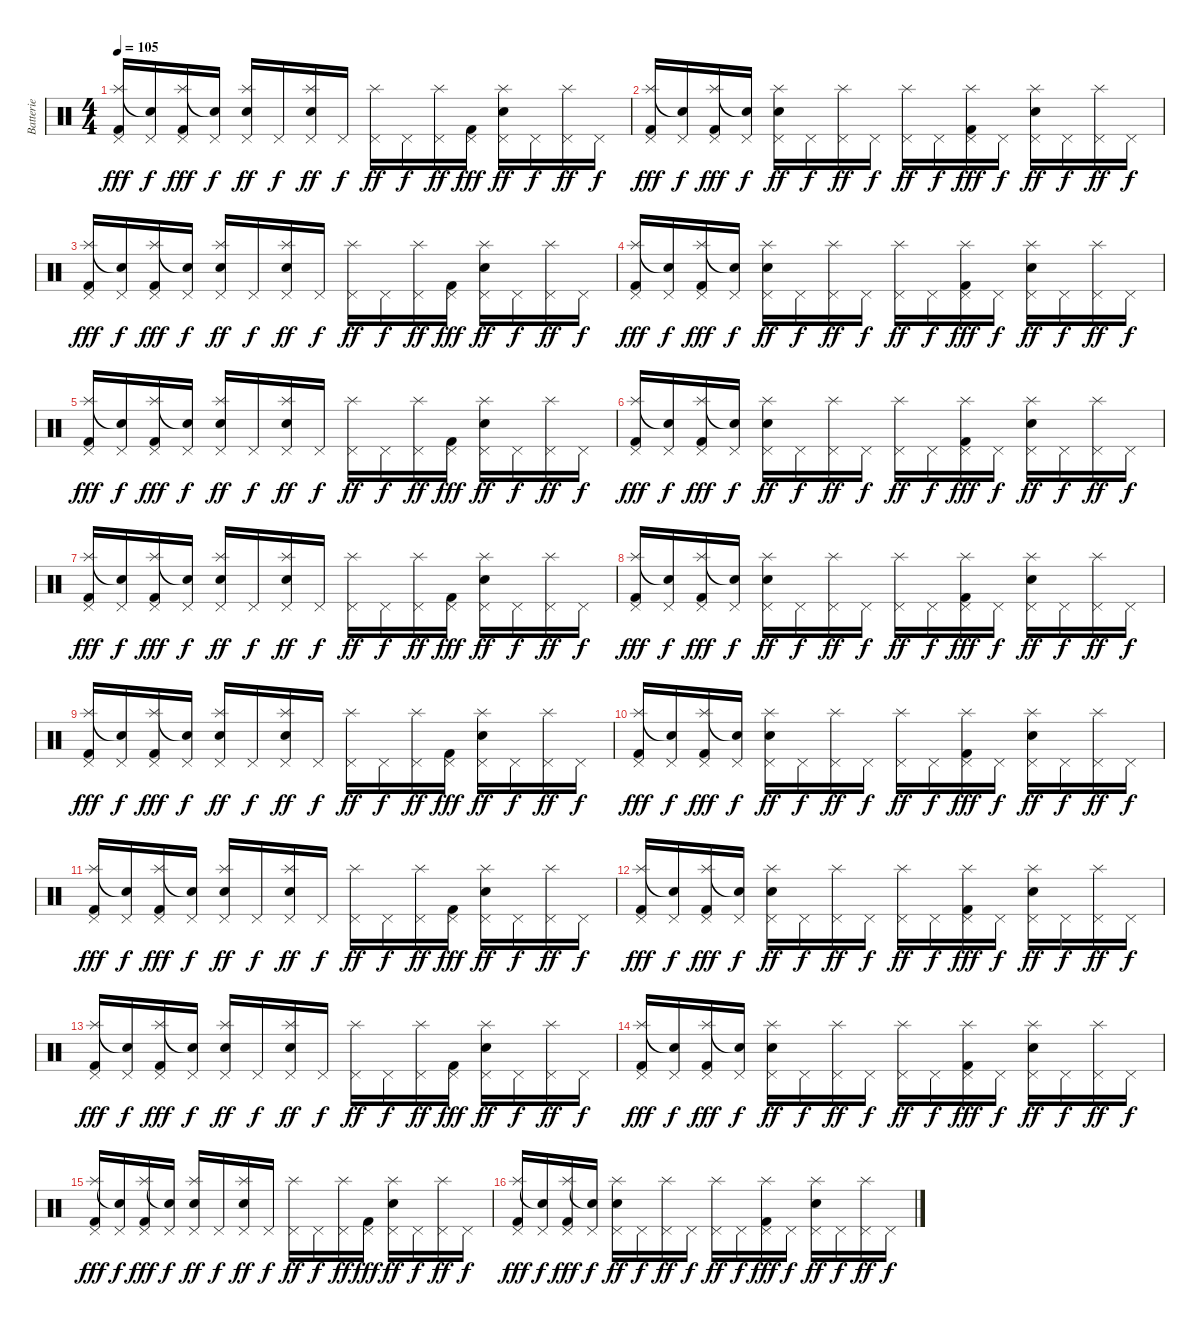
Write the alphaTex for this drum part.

\track ("Batterie" "Batterie") {instrument percussion}
\staff {score}
\articulation defaults
\ts (4 4)
\tempo 105
\clef neutral
\ks c
("Pedal Hi-Hat (hit)" "Splash (hit)" "Kick (hit) 2").16{dy fff} ("Pedal Hi-Hat (hit)" "Snare (hit)"{t}).16{dy f} ("Pedal Hi-Hat (hit)" "Splash (hit)" "Kick (hit) 2").16{dy fff} ("Pedal Hi-Hat (hit)" "Snare (hit)"{t}).16{dy f} ("Pedal Hi-Hat (hit)" "Snare (hit) 2" "Splash (hit)").16{dy ff} "Pedal Hi-Hat (hit)".16{dy f} ("Pedal Hi-Hat (hit)" "Snare (hit) 2" "Splash (hit)").16{dy ff} "Pedal Hi-Hat (hit)".16{dy f} ("Pedal Hi-Hat (hit)" "Splash (hit)").16{dy ff} "Pedal Hi-Hat (hit)".16{dy f} ("Pedal Hi-Hat (hit)" "Splash (hit)").16{dy ff} ("Pedal Hi-Hat (hit)" "Kick (hit) 2").16{dy fff} ("Pedal Hi-Hat (hit)" "Snare (hit) 2" "Splash (hit)").16{dy ff} "Pedal Hi-Hat (hit)".16{dy f} ("Pedal Hi-Hat (hit)" "Splash (hit)").16{dy ff} "Pedal Hi-Hat (hit)".16{dy f} |
("Pedal Hi-Hat (hit)" "Splash (hit)" "Kick (hit) 2").16{dy fff} ("Pedal Hi-Hat (hit)" "Snare (hit)"{t}).16{dy f} ("Pedal Hi-Hat (hit)" "Splash (hit)" "Kick (hit) 2").16{dy fff} ("Pedal Hi-Hat (hit)" "Snare (hit)"{t}).16{dy f} ("Pedal Hi-Hat (hit)" "Snare (hit) 2" "Splash (hit)").16{dy ff} "Pedal Hi-Hat (hit)".16{dy f} ("Pedal Hi-Hat (hit)" "Splash (hit)").16{dy ff} "Pedal Hi-Hat (hit)".16{dy f} ("Pedal Hi-Hat (hit)" "Splash (hit)").16{dy ff} "Pedal Hi-Hat (hit)".16{dy f} ("Pedal Hi-Hat (hit)" "Splash (hit)" "Kick (hit) 2").16{dy fff} "Pedal Hi-Hat (hit)".16{dy f} ("Pedal Hi-Hat (hit)" "Snare (hit) 2" "Splash (hit)").16{dy ff} "Pedal Hi-Hat (hit)".16{dy f} ("Pedal Hi-Hat (hit)" "Splash (hit)").16{dy ff} "Pedal Hi-Hat (hit)".16{dy f} |
("Pedal Hi-Hat (hit)" "Splash (hit)" "Kick (hit) 2").16{dy fff} ("Pedal Hi-Hat (hit)" "Snare (hit)"{t}).16{dy f} ("Pedal Hi-Hat (hit)" "Splash (hit)" "Kick (hit) 2").16{dy fff} ("Pedal Hi-Hat (hit)" "Snare (hit)"{t}).16{dy f} ("Pedal Hi-Hat (hit)" "Snare (hit) 2" "Splash (hit)").16{dy ff} "Pedal Hi-Hat (hit)".16{dy f} ("Pedal Hi-Hat (hit)" "Snare (hit) 2" "Splash (hit)").16{dy ff} "Pedal Hi-Hat (hit)".16{dy f} ("Pedal Hi-Hat (hit)" "Splash (hit)").16{dy ff} "Pedal Hi-Hat (hit)".16{dy f} ("Pedal Hi-Hat (hit)" "Splash (hit)").16{dy ff} ("Pedal Hi-Hat (hit)" "Kick (hit) 2").16{dy fff} ("Pedal Hi-Hat (hit)" "Snare (hit) 2" "Splash (hit)").16{dy ff} "Pedal Hi-Hat (hit)".16{dy f} ("Pedal Hi-Hat (hit)" "Splash (hit)").16{dy ff} "Pedal Hi-Hat (hit)".16{dy f} |
("Pedal Hi-Hat (hit)" "Splash (hit)" "Kick (hit) 2").16{dy fff} ("Pedal Hi-Hat (hit)" "Snare (hit)"{t}).16{dy f} ("Pedal Hi-Hat (hit)" "Splash (hit)" "Kick (hit) 2").16{dy fff} ("Pedal Hi-Hat (hit)" "Snare (hit)"{t}).16{dy f} ("Pedal Hi-Hat (hit)" "Snare (hit) 2" "Splash (hit)").16{dy ff} "Pedal Hi-Hat (hit)".16{dy f} ("Pedal Hi-Hat (hit)" "Splash (hit)").16{dy ff} "Pedal Hi-Hat (hit)".16{dy f} ("Pedal Hi-Hat (hit)" "Splash (hit)").16{dy ff} "Pedal Hi-Hat (hit)".16{dy f} ("Pedal Hi-Hat (hit)" "Splash (hit)" "Kick (hit) 2").16{dy fff} "Pedal Hi-Hat (hit)".16{dy f} ("Pedal Hi-Hat (hit)" "Snare (hit) 2" "Splash (hit)").16{dy ff} "Pedal Hi-Hat (hit)".16{dy f} ("Pedal Hi-Hat (hit)" "Splash (hit)").16{dy ff} "Pedal Hi-Hat (hit)".16{dy f} |
("Pedal Hi-Hat (hit)" "Splash (hit)" "Kick (hit) 2").16{dy fff} ("Pedal Hi-Hat (hit)" "Snare (hit)"{t}).16{dy f} ("Pedal Hi-Hat (hit)" "Splash (hit)" "Kick (hit) 2").16{dy fff} ("Pedal Hi-Hat (hit)" "Snare (hit)"{t}).16{dy f} ("Pedal Hi-Hat (hit)" "Snare (hit) 2" "Splash (hit)").16{dy ff} "Pedal Hi-Hat (hit)".16{dy f} ("Pedal Hi-Hat (hit)" "Snare (hit) 2" "Splash (hit)").16{dy ff} "Pedal Hi-Hat (hit)".16{dy f} ("Pedal Hi-Hat (hit)" "Splash (hit)").16{dy ff} "Pedal Hi-Hat (hit)".16{dy f} ("Pedal Hi-Hat (hit)" "Splash (hit)").16{dy ff} ("Pedal Hi-Hat (hit)" "Kick (hit) 2").16{dy fff} ("Pedal Hi-Hat (hit)" "Snare (hit) 2" "Splash (hit)").16{dy ff} "Pedal Hi-Hat (hit)".16{dy f} ("Pedal Hi-Hat (hit)" "Splash (hit)").16{dy ff} "Pedal Hi-Hat (hit)".16{dy f} |
("Pedal Hi-Hat (hit)" "Splash (hit)" "Kick (hit) 2").16{dy fff} ("Pedal Hi-Hat (hit)" "Snare (hit)"{t}).16{dy f} ("Pedal Hi-Hat (hit)" "Splash (hit)" "Kick (hit) 2").16{dy fff} ("Pedal Hi-Hat (hit)" "Snare (hit)"{t}).16{dy f} ("Pedal Hi-Hat (hit)" "Snare (hit) 2" "Splash (hit)").16{dy ff} "Pedal Hi-Hat (hit)".16{dy f} ("Pedal Hi-Hat (hit)" "Splash (hit)").16{dy ff} "Pedal Hi-Hat (hit)".16{dy f} ("Pedal Hi-Hat (hit)" "Splash (hit)").16{dy ff} "Pedal Hi-Hat (hit)".16{dy f} ("Pedal Hi-Hat (hit)" "Splash (hit)" "Kick (hit) 2").16{dy fff} "Pedal Hi-Hat (hit)".16{dy f} ("Pedal Hi-Hat (hit)" "Snare (hit) 2" "Splash (hit)").16{dy ff} "Pedal Hi-Hat (hit)".16{dy f} ("Pedal Hi-Hat (hit)" "Splash (hit)").16{dy ff} "Pedal Hi-Hat (hit)".16{dy f} |
("Pedal Hi-Hat (hit)" "Splash (hit)" "Kick (hit) 2").16{dy fff} ("Pedal Hi-Hat (hit)" "Snare (hit)"{t}).16{dy f} ("Pedal Hi-Hat (hit)" "Splash (hit)" "Kick (hit) 2").16{dy fff} ("Pedal Hi-Hat (hit)" "Snare (hit)"{t}).16{dy f} ("Pedal Hi-Hat (hit)" "Snare (hit) 2" "Splash (hit)").16{dy ff} "Pedal Hi-Hat (hit)".16{dy f} ("Pedal Hi-Hat (hit)" "Snare (hit) 2" "Splash (hit)").16{dy ff} "Pedal Hi-Hat (hit)".16{dy f} ("Pedal Hi-Hat (hit)" "Splash (hit)").16{dy ff} "Pedal Hi-Hat (hit)".16{dy f} ("Pedal Hi-Hat (hit)" "Splash (hit)").16{dy ff} ("Pedal Hi-Hat (hit)" "Kick (hit) 2").16{dy fff} ("Pedal Hi-Hat (hit)" "Snare (hit) 2" "Splash (hit)").16{dy ff} "Pedal Hi-Hat (hit)".16{dy f} ("Pedal Hi-Hat (hit)" "Splash (hit)").16{dy ff} "Pedal Hi-Hat (hit)".16{dy f} |
("Pedal Hi-Hat (hit)" "Splash (hit)" "Kick (hit) 2").16{dy fff} ("Pedal Hi-Hat (hit)" "Snare (hit)"{t}).16{dy f} ("Pedal Hi-Hat (hit)" "Splash (hit)" "Kick (hit) 2").16{dy fff} ("Pedal Hi-Hat (hit)" "Snare (hit)"{t}).16{dy f} ("Pedal Hi-Hat (hit)" "Snare (hit) 2" "Splash (hit)").16{dy ff} "Pedal Hi-Hat (hit)".16{dy f} ("Pedal Hi-Hat (hit)" "Splash (hit)").16{dy ff} "Pedal Hi-Hat (hit)".16{dy f} ("Pedal Hi-Hat (hit)" "Splash (hit)").16{dy ff} "Pedal Hi-Hat (hit)".16{dy f} ("Pedal Hi-Hat (hit)" "Splash (hit)" "Kick (hit) 2").16{dy fff} "Pedal Hi-Hat (hit)".16{dy f} ("Pedal Hi-Hat (hit)" "Snare (hit) 2" "Splash (hit)").16{dy ff} "Pedal Hi-Hat (hit)".16{dy f} ("Pedal Hi-Hat (hit)" "Splash (hit)").16{dy ff} "Pedal Hi-Hat (hit)".16{dy f} |
("Pedal Hi-Hat (hit)" "Splash (hit)" "Kick (hit) 2").16{dy fff} ("Pedal Hi-Hat (hit)" "Snare (hit)"{t}).16{dy f} ("Pedal Hi-Hat (hit)" "Splash (hit)" "Kick (hit) 2").16{dy fff} ("Pedal Hi-Hat (hit)" "Snare (hit)"{t}).16{dy f} ("Pedal Hi-Hat (hit)" "Snare (hit) 2" "Splash (hit)").16{dy ff} "Pedal Hi-Hat (hit)".16{dy f} ("Pedal Hi-Hat (hit)" "Snare (hit) 2" "Splash (hit)").16{dy ff} "Pedal Hi-Hat (hit)".16{dy f} ("Pedal Hi-Hat (hit)" "Splash (hit)").16{dy ff} "Pedal Hi-Hat (hit)".16{dy f} ("Pedal Hi-Hat (hit)" "Splash (hit)").16{dy ff} ("Pedal Hi-Hat (hit)" "Kick (hit) 2").16{dy fff} ("Pedal Hi-Hat (hit)" "Snare (hit) 2" "Splash (hit)").16{dy ff} "Pedal Hi-Hat (hit)".16{dy f} ("Pedal Hi-Hat (hit)" "Splash (hit)").16{dy ff} "Pedal Hi-Hat (hit)".16{dy f} |
("Pedal Hi-Hat (hit)" "Splash (hit)" "Kick (hit) 2").16{dy fff} ("Pedal Hi-Hat (hit)" "Snare (hit)"{t}).16{dy f} ("Pedal Hi-Hat (hit)" "Splash (hit)" "Kick (hit) 2").16{dy fff} ("Pedal Hi-Hat (hit)" "Snare (hit)"{t}).16{dy f} ("Pedal Hi-Hat (hit)" "Snare (hit) 2" "Splash (hit)").16{dy ff} "Pedal Hi-Hat (hit)".16{dy f} ("Pedal Hi-Hat (hit)" "Splash (hit)").16{dy ff} "Pedal Hi-Hat (hit)".16{dy f} ("Pedal Hi-Hat (hit)" "Splash (hit)").16{dy ff} "Pedal Hi-Hat (hit)".16{dy f} ("Pedal Hi-Hat (hit)" "Splash (hit)" "Kick (hit) 2").16{dy fff} "Pedal Hi-Hat (hit)".16{dy f} ("Pedal Hi-Hat (hit)" "Snare (hit) 2" "Splash (hit)").16{dy ff} "Pedal Hi-Hat (hit)".16{dy f} ("Pedal Hi-Hat (hit)" "Splash (hit)").16{dy ff} "Pedal Hi-Hat (hit)".16{dy f} |
("Pedal Hi-Hat (hit)" "Splash (hit)" "Kick (hit) 2").16{dy fff} ("Pedal Hi-Hat (hit)" "Snare (hit)"{t}).16{dy f} ("Pedal Hi-Hat (hit)" "Splash (hit)" "Kick (hit) 2").16{dy fff} ("Pedal Hi-Hat (hit)" "Snare (hit)"{t}).16{dy f} ("Pedal Hi-Hat (hit)" "Snare (hit) 2" "Splash (hit)").16{dy ff} "Pedal Hi-Hat (hit)".16{dy f} ("Pedal Hi-Hat (hit)" "Snare (hit) 2" "Splash (hit)").16{dy ff} "Pedal Hi-Hat (hit)".16{dy f} ("Pedal Hi-Hat (hit)" "Splash (hit)").16{dy ff} "Pedal Hi-Hat (hit)".16{dy f} ("Pedal Hi-Hat (hit)" "Splash (hit)").16{dy ff} ("Pedal Hi-Hat (hit)" "Kick (hit) 2").16{dy fff} ("Pedal Hi-Hat (hit)" "Snare (hit) 2" "Splash (hit)").16{dy ff} "Pedal Hi-Hat (hit)".16{dy f} ("Pedal Hi-Hat (hit)" "Splash (hit)").16{dy ff} "Pedal Hi-Hat (hit)".16{dy f} |
("Pedal Hi-Hat (hit)" "Splash (hit)" "Kick (hit) 2").16{dy fff} ("Pedal Hi-Hat (hit)" "Snare (hit)"{t}).16{dy f} ("Pedal Hi-Hat (hit)" "Splash (hit)" "Kick (hit) 2").16{dy fff} ("Pedal Hi-Hat (hit)" "Snare (hit)"{t}).16{dy f} ("Pedal Hi-Hat (hit)" "Snare (hit) 2" "Splash (hit)").16{dy ff} "Pedal Hi-Hat (hit)".16{dy f} ("Pedal Hi-Hat (hit)" "Splash (hit)").16{dy ff} "Pedal Hi-Hat (hit)".16{dy f} ("Pedal Hi-Hat (hit)" "Splash (hit)").16{dy ff} "Pedal Hi-Hat (hit)".16{dy f} ("Pedal Hi-Hat (hit)" "Splash (hit)" "Kick (hit) 2").16{dy fff} "Pedal Hi-Hat (hit)".16{dy f} ("Pedal Hi-Hat (hit)" "Snare (hit) 2" "Splash (hit)").16{dy ff} "Pedal Hi-Hat (hit)".16{dy f} ("Pedal Hi-Hat (hit)" "Splash (hit)").16{dy ff} "Pedal Hi-Hat (hit)".16{dy f} |
("Pedal Hi-Hat (hit)" "Splash (hit)" "Kick (hit) 2").16{dy fff} ("Pedal Hi-Hat (hit)" "Snare (hit)"{t}).16{dy f} ("Pedal Hi-Hat (hit)" "Splash (hit)" "Kick (hit) 2").16{dy fff} ("Pedal Hi-Hat (hit)" "Snare (hit)"{t}).16{dy f} ("Pedal Hi-Hat (hit)" "Snare (hit) 2" "Splash (hit)").16{dy ff} "Pedal Hi-Hat (hit)".16{dy f} ("Pedal Hi-Hat (hit)" "Snare (hit) 2" "Splash (hit)").16{dy ff} "Pedal Hi-Hat (hit)".16{dy f} ("Pedal Hi-Hat (hit)" "Splash (hit)").16{dy ff} "Pedal Hi-Hat (hit)".16{dy f} ("Pedal Hi-Hat (hit)" "Splash (hit)").16{dy ff} ("Pedal Hi-Hat (hit)" "Kick (hit) 2").16{dy fff} ("Pedal Hi-Hat (hit)" "Snare (hit) 2" "Splash (hit)").16{dy ff} "Pedal Hi-Hat (hit)".16{dy f} ("Pedal Hi-Hat (hit)" "Splash (hit)").16{dy ff} "Pedal Hi-Hat (hit)".16{dy f} |
("Pedal Hi-Hat (hit)" "Splash (hit)" "Kick (hit) 2").16{dy fff} ("Pedal Hi-Hat (hit)" "Snare (hit)"{t}).16{dy f} ("Pedal Hi-Hat (hit)" "Splash (hit)" "Kick (hit) 2").16{dy fff} ("Pedal Hi-Hat (hit)" "Snare (hit)"{t}).16{dy f} ("Pedal Hi-Hat (hit)" "Snare (hit) 2" "Splash (hit)").16{dy ff} "Pedal Hi-Hat (hit)".16{dy f} ("Pedal Hi-Hat (hit)" "Splash (hit)").16{dy ff} "Pedal Hi-Hat (hit)".16{dy f} ("Pedal Hi-Hat (hit)" "Splash (hit)").16{dy ff} "Pedal Hi-Hat (hit)".16{dy f} ("Pedal Hi-Hat (hit)" "Splash (hit)" "Kick (hit) 2").16{dy fff} "Pedal Hi-Hat (hit)".16{dy f} ("Pedal Hi-Hat (hit)" "Snare (hit) 2" "Splash (hit)").16{dy ff} "Pedal Hi-Hat (hit)".16{dy f} ("Pedal Hi-Hat (hit)" "Splash (hit)").16{dy ff} "Pedal Hi-Hat (hit)".16{dy f} |
("Pedal Hi-Hat (hit)" "Splash (hit)" "Kick (hit) 2").16{dy fff} ("Pedal Hi-Hat (hit)" "Snare (hit)"{t}).16{dy f} ("Pedal Hi-Hat (hit)" "Splash (hit)" "Kick (hit) 2").16{dy fff} ("Pedal Hi-Hat (hit)" "Snare (hit)"{t}).16{dy f} ("Pedal Hi-Hat (hit)" "Snare (hit) 2" "Splash (hit)").16{dy ff} "Pedal Hi-Hat (hit)".16{dy f} ("Pedal Hi-Hat (hit)" "Snare (hit) 2" "Splash (hit)").16{dy ff} "Pedal Hi-Hat (hit)".16{dy f} ("Pedal Hi-Hat (hit)" "Splash (hit)").16{dy ff} "Pedal Hi-Hat (hit)".16{dy f} ("Pedal Hi-Hat (hit)" "Splash (hit)").16{dy ff} ("Pedal Hi-Hat (hit)" "Kick (hit) 2").16{dy fff} ("Pedal Hi-Hat (hit)" "Snare (hit) 2" "Splash (hit)").16{dy ff} "Pedal Hi-Hat (hit)".16{dy f} ("Pedal Hi-Hat (hit)" "Splash (hit)").16{dy ff} "Pedal Hi-Hat (hit)".16{dy f} |
("Pedal Hi-Hat (hit)" "Splash (hit)" "Kick (hit) 2").16{dy fff} ("Pedal Hi-Hat (hit)" "Snare (hit)"{t}).16{dy f} ("Pedal Hi-Hat (hit)" "Splash (hit)" "Kick (hit) 2").16{dy fff} ("Pedal Hi-Hat (hit)" "Snare (hit)"{t}).16{dy f} ("Pedal Hi-Hat (hit)" "Snare (hit) 2" "Splash (hit)").16{dy ff} "Pedal Hi-Hat (hit)".16{dy f} ("Pedal Hi-Hat (hit)" "Splash (hit)").16{dy ff} "Pedal Hi-Hat (hit)".16{dy f} ("Pedal Hi-Hat (hit)" "Splash (hit)").16{dy ff} "Pedal Hi-Hat (hit)".16{dy f} ("Pedal Hi-Hat (hit)" "Splash (hit)" "Kick (hit) 2").16{dy fff} "Pedal Hi-Hat (hit)".16{dy f} ("Pedal Hi-Hat (hit)" "Snare (hit) 2" "Splash (hit)").16{dy ff} "Pedal Hi-Hat (hit)".16{dy f} ("Pedal Hi-Hat (hit)" "Splash (hit)").16{dy ff} "Pedal Hi-Hat (hit)".16{dy f}
